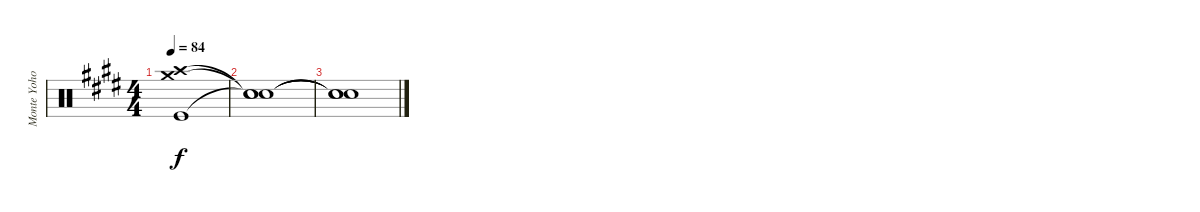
\track ("Monte Yoho Drums" "Monte Yoho") {instrument percussion}
\staff {score}
\articulation defaults
\ts (4 4)
\tempo 84
\clef neutral
\ks e
("Crash high (hit)" "Crash medium (hit)" "Kick (hit)").1{dy f} |
("Snare (hit)"{t} "Snare (hit)"{t} "Snare (hit)"{t}).1 |
("Snare (hit)"{t} "Snare (hit)"{t} "Snare (hit)"{t}).1
